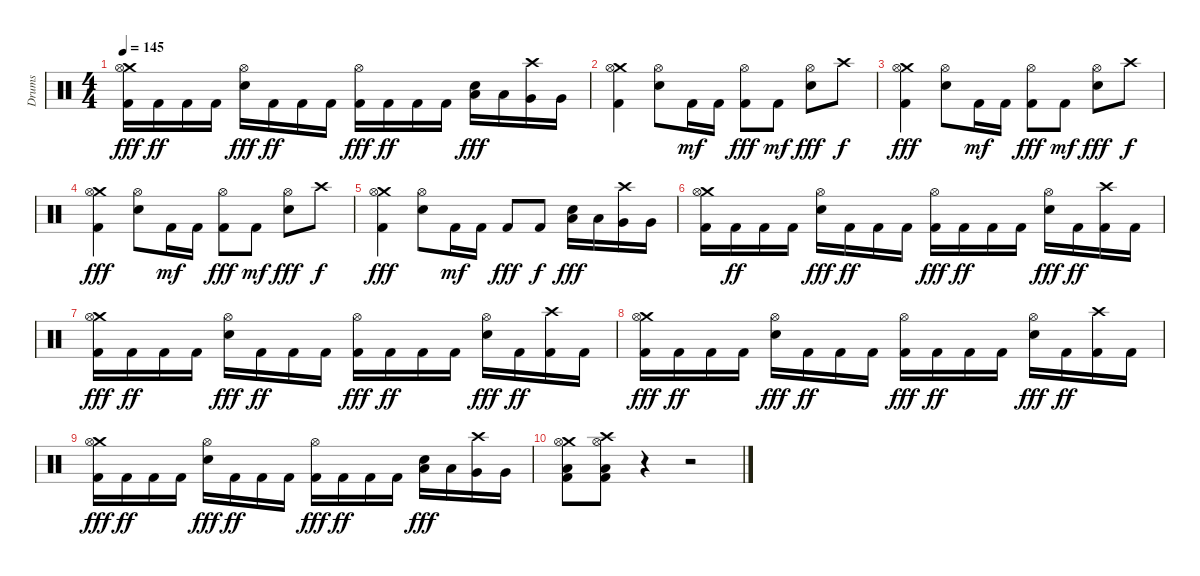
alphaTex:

\track ("Drums" "Drums") {instrument percussion}
\staff {score}
\articulation defaults
\ts (4 4)
\tempo 145
\clef neutral
\ks c
("Crash medium (hit)" "Hi-Hat (open)" "Kick (hit) 2").16{dy fff} "Kick (hit) 2".16{dy ff} "Kick (hit) 2".16 "Kick (hit) 2".16 ("Hi-Hat (open)" "Snare (hit) 2").16{dy fff} "Kick (hit) 2".16{dy ff} "Kick (hit) 2".16 "Kick (hit) 2".16 ("Hi-Hat (open)" "Kick (hit) 2").16{dy fff} "Kick (hit) 2".16{dy ff} "Kick (hit) 2".16 "Kick (hit) 2".16 ("Low Tom (hit)" "Snare (hit) 2").16{dy fff} "Low Tom (hit)".16 ("Crash high (hit)" "Very Low Tom (hit)").16 "Very Low Tom (hit)".16 |
("Crash medium (hit)" "Hi-Hat (open)" "Kick (hit) 2").4 ("Hi-Hat (open)" "Snare (hit) 2").8 "Kick (hit) 2".16{dy mf} "Kick (hit) 2".16 ("Hi-Hat (open)" "Kick (hit) 2").8{dy fff} "Kick (hit) 2".8{dy mf} ("Hi-Hat (open)" "Snare (hit) 2").8{dy fff} "Crash high (hit)".8{dy f} |
("Crash medium (hit)" "Hi-Hat (open)" "Kick (hit) 2").4{dy fff} ("Hi-Hat (open)" "Snare (hit) 2").8 "Kick (hit) 2".16{dy mf} "Kick (hit) 2".16 ("Hi-Hat (open)" "Kick (hit) 2").8{dy fff} "Kick (hit) 2".8{dy mf} ("Hi-Hat (open)" "Snare (hit) 2").8{dy fff} "Crash high (hit)".8{dy f} |
("Crash medium (hit)" "Hi-Hat (open)" "Kick (hit) 2").4{dy fff} ("Hi-Hat (open)" "Snare (hit) 2").8 "Kick (hit) 2".16{dy mf} "Kick (hit) 2".16 ("Hi-Hat (open)" "Kick (hit) 2").8{dy fff} "Kick (hit) 2".8{dy mf} ("Hi-Hat (open)" "Snare (hit) 2").8{dy fff} "Crash high (hit)".8{dy f} |
("Crash medium (hit)" "Hi-Hat (open)" "Kick (hit) 2").4{dy fff} ("Hi-Hat (open)" "Snare (hit) 2").8 "Kick (hit) 2".16{dy mf} "Kick (hit) 2".16 "Kick (hit) 2".8{dy fff} "Kick (hit) 2".8{dy f} ("Low Tom (hit)" "Snare (hit) 2").16{dy fff} "Low Tom (hit)".16 ("Crash high (hit)" "Very Low Tom (hit)").16 "Very Low Tom (hit)".16 |
("Crash medium (hit)" "Hi-Hat (open)" "Kick (hit) 2").16 "Kick (hit) 2".16{dy ff} "Kick (hit) 2".16 "Kick (hit) 2".16 ("Hi-Hat (open)" "Snare (hit) 2").16{dy fff} "Kick (hit) 2".16{dy ff} "Kick (hit) 2".16 "Kick (hit) 2".16 ("Hi-Hat (open)" "Kick (hit) 2").16{dy fff} "Kick (hit) 2".16{dy ff} "Kick (hit) 2".16 "Kick (hit) 2".16 ("Hi-Hat (open)" "Snare (hit) 2").16{dy fff} "Kick (hit) 2".16{dy ff} ("Crash high (hit)" "Kick (hit) 2").16 "Kick (hit) 2".16 |
("Crash medium (hit)" "Hi-Hat (open)" "Kick (hit) 2").16{dy fff} "Kick (hit) 2".16{dy ff} "Kick (hit) 2".16 "Kick (hit) 2".16 ("Hi-Hat (open)" "Snare (hit) 2").16{dy fff} "Kick (hit) 2".16{dy ff} "Kick (hit) 2".16 "Kick (hit) 2".16 ("Hi-Hat (open)" "Kick (hit) 2").16{dy fff} "Kick (hit) 2".16{dy ff} "Kick (hit) 2".16 "Kick (hit) 2".16 ("Hi-Hat (open)" "Snare (hit) 2").16{dy fff} "Kick (hit) 2".16{dy ff} ("Crash high (hit)" "Kick (hit) 2").16 "Kick (hit) 2".16 |
("Crash medium (hit)" "Hi-Hat (open)" "Kick (hit) 2").16{dy fff} "Kick (hit) 2".16{dy ff} "Kick (hit) 2".16 "Kick (hit) 2".16 ("Hi-Hat (open)" "Snare (hit) 2").16{dy fff} "Kick (hit) 2".16{dy ff} "Kick (hit) 2".16 "Kick (hit) 2".16 ("Hi-Hat (open)" "Kick (hit) 2").16{dy fff} "Kick (hit) 2".16{dy ff} "Kick (hit) 2".16 "Kick (hit) 2".16 ("Hi-Hat (open)" "Snare (hit) 2").16{dy fff} "Kick (hit) 2".16{dy ff} ("Crash high (hit)" "Kick (hit) 2").16 "Kick (hit) 2".16 |
("Crash medium (hit)" "Hi-Hat (open)" "Kick (hit) 2").16{dy fff} "Kick (hit) 2".16{dy ff} "Kick (hit) 2".16 "Kick (hit) 2".16 ("Hi-Hat (open)" "Snare (hit) 2").16{dy fff} "Kick (hit) 2".16{dy ff} "Kick (hit) 2".16 "Kick (hit) 2".16 ("Hi-Hat (open)" "Kick (hit) 2").16{dy fff} "Kick (hit) 2".16{dy ff} "Kick (hit) 2".16 "Kick (hit) 2".16 ("Low Tom (hit)" "Snare (hit) 2").16{dy fff} "Low Tom (hit)".16 ("Crash high (hit)" "Very Low Tom (hit)").16 "Very Low Tom (hit)".16 |
("Crash medium (hit)" "Hi-Hat (open)" "Low Tom (hit)" "Kick (hit) 2").8 ("Crash high (hit)" "Hi-Hat (open)" "Low Tom (hit)" "Kick (hit) 2").8 r.4 r.2
